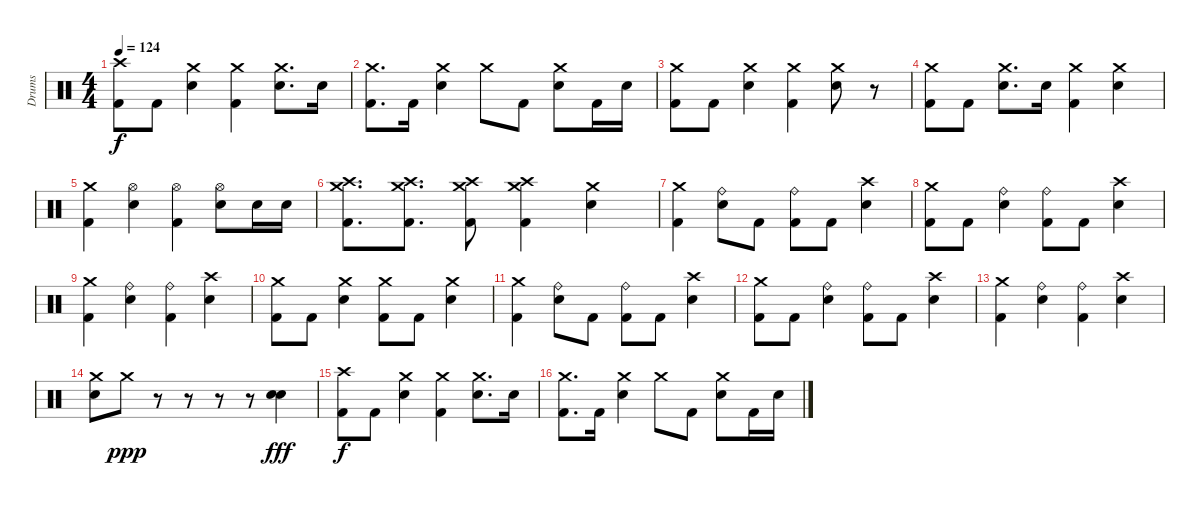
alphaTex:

\track ("Drums" "Drums") {instrument percussion}
\staff
\articulation defaults
\ts (4 4)
\tempo 124
\clef neutral
\ks c
("Crash high (hit)" "Kick (hit) 2").8{dy f} "Kick (hit) 2".8 ("Crash medium (hit)" "Electric Snare (hit)").4 ("Crash medium (hit)" "Kick (hit) 2").4 ("Crash medium (hit)" "Electric Snare (hit)").8{d} "Electric Snare (hit)".16 |
("Crash medium (hit)" "Kick (hit) 2").8{d} "Kick (hit) 2".16 ("Crash medium (hit)" "Electric Snare (hit)").4 "Crash medium (hit)".8 "Kick (hit) 2".8 ("Crash medium (hit)" "Electric Snare (hit)").8 "Kick (hit) 2".16 "Electric Snare (hit)".16 |
("Crash medium (hit)" "Kick (hit) 2").8 "Kick (hit) 2".8 ("Crash medium (hit)" "Electric Snare (hit)").4 ("Crash medium (hit)" "Kick (hit) 2").4 ("Crash medium (hit)" "Electric Snare (hit)").8 r.8 |
("Crash medium (hit)" "Kick (hit) 2").8 "Kick (hit) 2".8 ("Crash medium (hit)" "Electric Snare (hit)").8{d} "Electric Snare (hit)".16 ("Crash medium (hit)" "Kick (hit) 2").4 ("Crash medium (hit)" "Electric Snare (hit)").4 |
("Crash medium (hit)" "Kick (hit) 2").4 ("Hi-Hat (open)" "Electric Snare (hit)").4 ("Hi-Hat (open)" "Kick (hit) 2").4 ("Hi-Hat (open)" "Electric Snare (hit)").8 "Electric Snare (hit)".16 "Electric Snare (hit)".16 |
("Crash medium (hit)" "Crash high (hit)" "Kick (hit) 2").8{d} ("Crash medium (hit)" "Crash high (hit)" "Kick (hit) 2").8{d} ("Crash medium (hit)" "Crash high (hit)" "Kick (hit) 2").8 ("Crash medium (hit)" "Crash high (hit)" "Kick (hit) 2").4 ("Crash medium (hit)" "Electric Snare (hit)").4 |
("Crash medium (hit)" "Kick (hit) 2").4 ("Ride (bell)" "Electric Snare (hit)").8 "Kick (hit) 2".8 ("Ride (bell)" "Kick (hit) 2").8 "Kick (hit) 2".8 ("Crash high (hit)" "Electric Snare (hit)").4 |
("Crash medium (hit)" "Kick (hit) 2").8 "Kick (hit) 2".8 ("Ride (bell)" "Electric Snare (hit)").4 ("Ride (bell)" "Kick (hit) 2").8 "Kick (hit) 2".8 ("Crash high (hit)" "Electric Snare (hit)").4 |
("Crash medium (hit)" "Kick (hit) 2").4 ("Ride (bell)" "Electric Snare (hit)").4 ("Ride (bell)" "Kick (hit) 2").4 ("Crash high (hit)" "Electric Snare (hit)").4 |
("Crash medium (hit)" "Kick (hit) 2").8 "Kick (hit) 2".8 ("Crash medium (hit)" "Electric Snare (hit)").4 ("Crash medium (hit)" "Kick (hit) 2").8 "Kick (hit) 2".8 ("Crash medium (hit)" "Electric Snare (hit)").4 |
("Crash medium (hit)" "Kick (hit) 2").4 ("Ride (bell)" "Electric Snare (hit)").8 "Kick (hit) 2".8 ("Ride (bell)" "Kick (hit) 2").8 "Kick (hit) 2".8 ("Crash high (hit)" "Electric Snare (hit)").4 |
("Crash medium (hit)" "Kick (hit) 2").8 "Kick (hit) 2".8 ("Ride (bell)" "Electric Snare (hit)").4 ("Ride (bell)" "Kick (hit) 2").8 "Kick (hit) 2".8 ("Crash high (hit)" "Electric Snare (hit)").4 |
("Crash medium (hit)" "Kick (hit) 2").4 ("Ride (bell)" "Electric Snare (hit)").4 ("Ride (bell)" "Kick (hit) 2").4 ("Crash high (hit)" "Electric Snare (hit)").4 |
("Crash medium (hit)" "Electric Snare (hit)").8 "Crash medium (hit)".8{dy ppp} r.8 r.8 r.8 r.8 ("Electric Snare (hit)" "Electric Snare (hit)").4{bd 60 dy fff} |
("Crash high (hit)" "Kick (hit) 2").8{dy f} "Kick (hit) 2".8 ("Crash medium (hit)" "Electric Snare (hit)").4 ("Crash medium (hit)" "Kick (hit) 2").4 ("Crash medium (hit)" "Electric Snare (hit)").8{d} "Electric Snare (hit)".16 |
("Crash medium (hit)" "Kick (hit) 2").8{d} "Kick (hit) 2".16 ("Crash medium (hit)" "Electric Snare (hit)").4 "Crash medium (hit)".8 "Kick (hit) 2".8 ("Crash medium (hit)" "Electric Snare (hit)").8 "Kick (hit) 2".16 "Electric Snare (hit)".16
